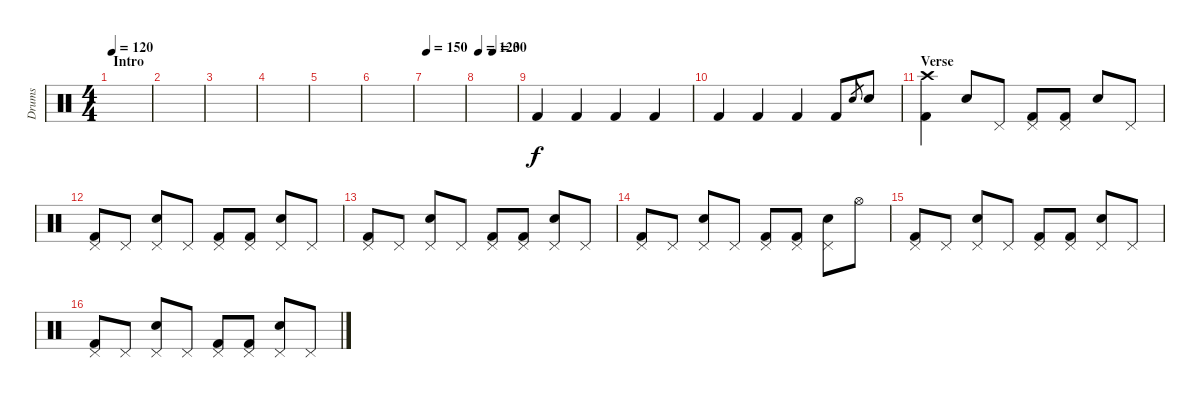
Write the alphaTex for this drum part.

\track ("Drums" "Drums") {instrument percussion}
\staff {score}
\articulation defaults
\ts (4 4)
\section ("" "Intro")
\tempo 120
\clef neutral
\ks c
|
|
|
|
|
|
\tempo 150
|
\tempo 120
\tempo (30 0.375)
|
"Kick (hit) 2".4 "Kick (hit) 2".4 "Kick (hit) 2".4 "Kick (hit) 2".4 |
"Kick (hit) 2".4 "Kick (hit) 2".4 "Kick (hit) 2".4 "Kick (hit) 2".8 "Snare (hit) 2".8{gr} "Snare (hit) 2".8 |
\section ("" "Verse")
("Crash high (hit)" "Kick (hit) 2").4 "Snare (hit) 2".8 "Pedal Hi-Hat (hit)".8 ("Pedal Hi-Hat (hit)" "Kick (hit) 2").8 ("Pedal Hi-Hat (hit)" "Kick (hit) 2").8 "Snare (hit) 2".8 "Pedal Hi-Hat (hit)".8 |
("Pedal Hi-Hat (hit)" "Kick (hit) 2").8 "Pedal Hi-Hat (hit)".8 ("Pedal Hi-Hat (hit)" "Snare (hit) 2").8 "Pedal Hi-Hat (hit)".8 ("Pedal Hi-Hat (hit)" "Kick (hit) 2").8 ("Pedal Hi-Hat (hit)" "Kick (hit) 2").8 ("Pedal Hi-Hat (hit)" "Snare (hit) 2").8 "Pedal Hi-Hat (hit)".8 |
("Pedal Hi-Hat (hit)" "Kick (hit) 2").8 "Pedal Hi-Hat (hit)".8 ("Pedal Hi-Hat (hit)" "Snare (hit) 2").8 "Pedal Hi-Hat (hit)".8 ("Pedal Hi-Hat (hit)" "Kick (hit) 2").8 ("Pedal Hi-Hat (hit)" "Kick (hit) 2").8 ("Pedal Hi-Hat (hit)" "Snare (hit) 2").8 "Pedal Hi-Hat (hit)".8 |
("Pedal Hi-Hat (hit)" "Kick (hit) 2").8 "Pedal Hi-Hat (hit)".8 ("Pedal Hi-Hat (hit)" "Snare (hit) 2").8 "Pedal Hi-Hat (hit)".8 ("Pedal Hi-Hat (hit)" "Kick (hit) 2").8 ("Pedal Hi-Hat (hit)" "Kick (hit) 2").8 ("Pedal Hi-Hat (hit)" "Snare (hit) 2").8 "Hi-Hat (open)".8 |
("Pedal Hi-Hat (hit)" "Kick (hit) 2").8 "Pedal Hi-Hat (hit)".8 ("Pedal Hi-Hat (hit)" "Snare (hit) 2").8 "Pedal Hi-Hat (hit)".8 ("Pedal Hi-Hat (hit)" "Kick (hit) 2").8 ("Pedal Hi-Hat (hit)" "Kick (hit) 2").8 ("Pedal Hi-Hat (hit)" "Snare (hit) 2").8 "Pedal Hi-Hat (hit)".8 |
("Pedal Hi-Hat (hit)" "Kick (hit) 2").8 "Pedal Hi-Hat (hit)".8 ("Pedal Hi-Hat (hit)" "Snare (hit) 2").8 "Pedal Hi-Hat (hit)".8 ("Pedal Hi-Hat (hit)" "Kick (hit) 2").8 ("Pedal Hi-Hat (hit)" "Kick (hit) 2").8 ("Pedal Hi-Hat (hit)" "Snare (hit) 2").8 "Pedal Hi-Hat (hit)".8
